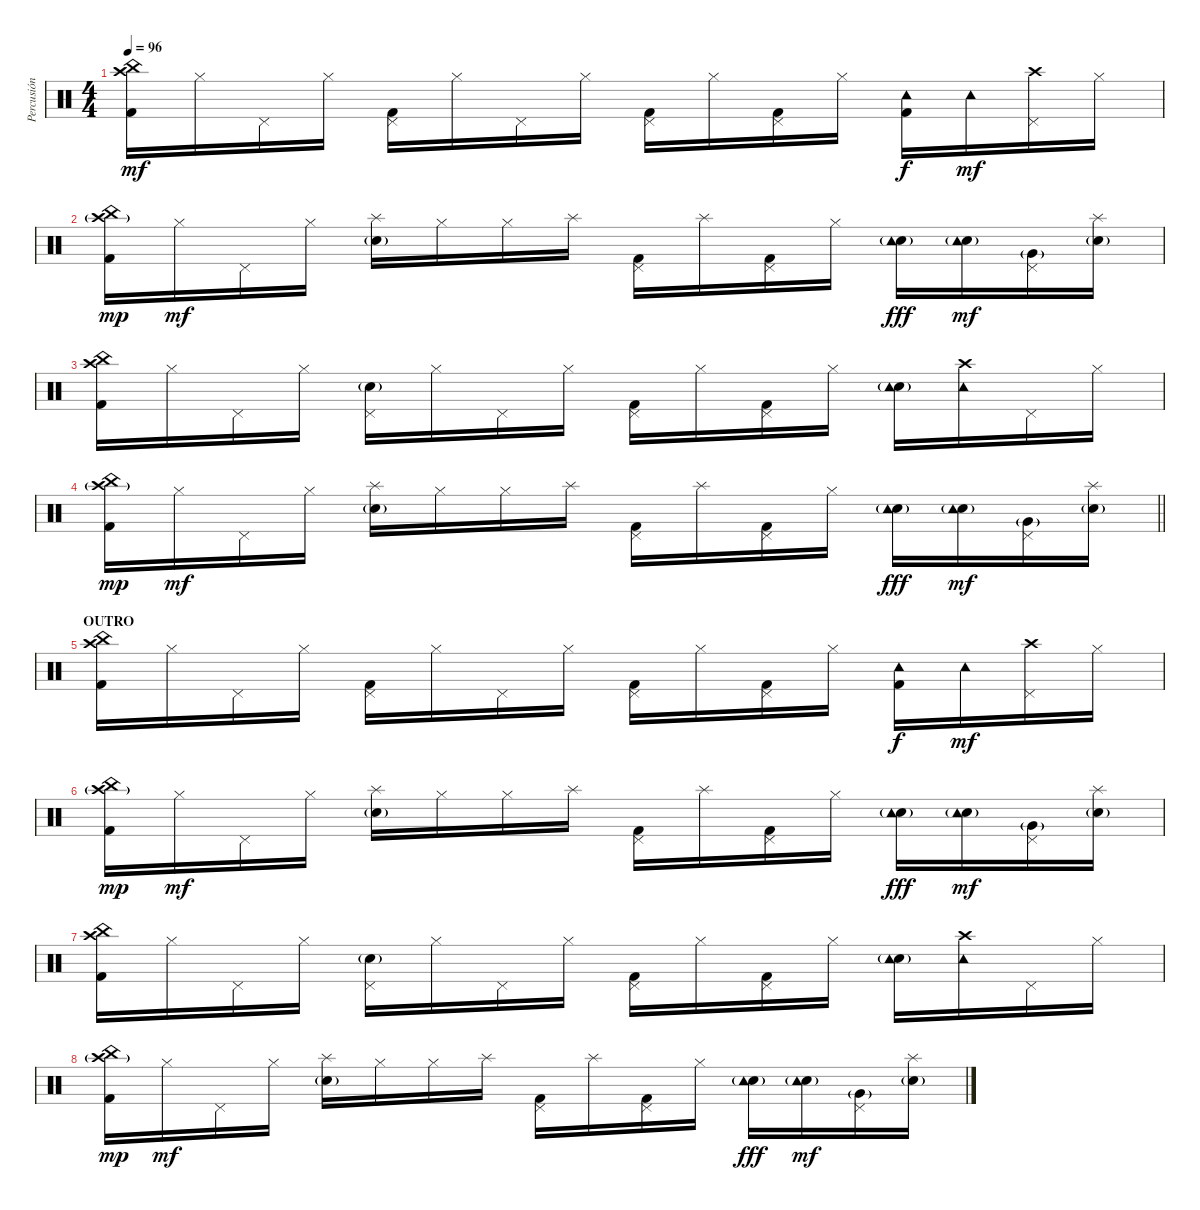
\track ("Percusión" "Percusión") {instrument percussion}
\staff {score}
\articulation defaults
\ts (4 4)
\tempo 96
\clef neutral
\ks c
("China (hit)" "Kick (hit) 2" "Crash high (hit)").16{dy mf} "Hi-Hat (closed)".16 "Pedal Hi-Hat (hit)".16 "Hi-Hat (closed)".16 ("Kick (hit) 2" "Pedal Hi-Hat (hit)").16 "Hi-Hat (closed)".16 "Pedal Hi-Hat (hit)".16 "Hi-Hat (closed)".16 ("Kick (hit) 2" "Pedal Hi-Hat (hit)").16 "Hi-Hat (closed)".16 ("Kick (hit) 2" "Pedal Hi-Hat (hit)").16 "Hi-Hat (closed)".16 ("Kick (hit) 2" "Tambourine (hit)").16{dy f} "Tambourine (hit)".16{dy mf} ("Crash high (hit)" "Pedal Hi-Hat (hit)").16 "Hi-Hat (closed)".16 |
("China (hit)" "Kick (hit) 2" "Crash high (hit)"{g}).16{dy mp} "Hi-Hat (closed)".16{dy mf} "Pedal Hi-Hat (hit)".16 "Hi-Hat (closed)".16 ("Electric Snare (hit)"{g} "Splash (hit)").16 "Hi-Hat (closed)".16 "Hi-Hat (closed)".16 "Splash (hit)".16 ("Kick (hit) 2" "Pedal Hi-Hat (hit)").16 "Splash (hit)".16 ("Kick (hit) 2" "Pedal Hi-Hat (hit)").16 "Hi-Hat (closed)".16 ("Electric Snare (hit)"{g} "Tambourine (hit)").16{dy fff} ("Electric Snare (hit)"{g} "Tambourine (hit)").16{dy mf} ("Very Low Tom (hit)"{g} "Pedal Hi-Hat (hit)").16 ("Electric Snare (hit)"{g} "Splash (hit)").16 |
("China (hit)" "Kick (hit) 2" "Crash high (hit)").16 "Hi-Hat (closed)".16 "Pedal Hi-Hat (hit)".16 "Hi-Hat (closed)".16 ("Electric Snare (hit)"{g} "Pedal Hi-Hat (hit)").16 "Hi-Hat (closed)".16 "Pedal Hi-Hat (hit)".16 "Hi-Hat (closed)".16 ("Kick (hit) 2" "Pedal Hi-Hat (hit)").16 "Hi-Hat (closed)".16 ("Kick (hit) 2" "Pedal Hi-Hat (hit)").16 "Hi-Hat (closed)".16 ("Electric Snare (hit)"{g} "Tambourine (hit)").16 ("Crash high (hit)" "Tambourine (hit)").16 "Pedal Hi-Hat (hit)".16 "Hi-Hat (closed)".16 |
\barLineRight lightlight
("China (hit)" "Kick (hit) 2" "Crash high (hit)"{g}).16{dy mp} "Hi-Hat (closed)".16{dy mf} "Pedal Hi-Hat (hit)".16 "Hi-Hat (closed)".16 ("Electric Snare (hit)"{g} "Splash (hit)").16 "Hi-Hat (closed)".16 "Hi-Hat (closed)".16 "Splash (hit)".16 ("Kick (hit) 2" "Pedal Hi-Hat (hit)").16 "Splash (hit)".16 ("Kick (hit) 2" "Pedal Hi-Hat (hit)").16 "Hi-Hat (closed)".16 ("Electric Snare (hit)"{g} "Tambourine (hit)").16{dy fff} ("Electric Snare (hit)"{g} "Tambourine (hit)").16{dy mf} ("Very Low Tom (hit)"{g} "Pedal Hi-Hat (hit)").16 ("Electric Snare (hit)"{g} "Splash (hit)").16 |
\section ("" "OUTRO")
("China (hit)" "Kick (hit) 2" "Crash high (hit)").16 "Hi-Hat (closed)".16 "Pedal Hi-Hat (hit)".16 "Hi-Hat (closed)".16 ("Kick (hit) 2" "Pedal Hi-Hat (hit)").16 "Hi-Hat (closed)".16 "Pedal Hi-Hat (hit)".16 "Hi-Hat (closed)".16 ("Kick (hit) 2" "Pedal Hi-Hat (hit)").16 "Hi-Hat (closed)".16 ("Kick (hit) 2" "Pedal Hi-Hat (hit)").16 "Hi-Hat (closed)".16 ("Kick (hit) 2" "Tambourine (hit)").16{dy f} "Tambourine (hit)".16{dy mf} ("Crash high (hit)" "Pedal Hi-Hat (hit)").16 "Hi-Hat (closed)".16 |
("China (hit)" "Kick (hit) 2" "Crash high (hit)"{g}).16{dy mp} "Hi-Hat (closed)".16{dy mf} "Pedal Hi-Hat (hit)".16 "Hi-Hat (closed)".16 ("Electric Snare (hit)"{g} "Splash (hit)").16 "Hi-Hat (closed)".16 "Hi-Hat (closed)".16 "Splash (hit)".16 ("Kick (hit) 2" "Pedal Hi-Hat (hit)").16 "Splash (hit)".16 ("Kick (hit) 2" "Pedal Hi-Hat (hit)").16 "Hi-Hat (closed)".16 ("Electric Snare (hit)"{g} "Tambourine (hit)").16{dy fff} ("Electric Snare (hit)"{g} "Tambourine (hit)").16{dy mf} ("Very Low Tom (hit)"{g} "Pedal Hi-Hat (hit)").16 ("Electric Snare (hit)"{g} "Splash (hit)").16 |
("China (hit)" "Kick (hit) 2" "Crash high (hit)").16 "Hi-Hat (closed)".16 "Pedal Hi-Hat (hit)".16 "Hi-Hat (closed)".16 ("Electric Snare (hit)"{g} "Pedal Hi-Hat (hit)").16 "Hi-Hat (closed)".16 "Pedal Hi-Hat (hit)".16 "Hi-Hat (closed)".16 ("Kick (hit) 2" "Pedal Hi-Hat (hit)").16 "Hi-Hat (closed)".16 ("Kick (hit) 2" "Pedal Hi-Hat (hit)").16 "Hi-Hat (closed)".16 ("Electric Snare (hit)"{g} "Tambourine (hit)").16 ("Crash high (hit)" "Tambourine (hit)").16 "Pedal Hi-Hat (hit)".16 "Hi-Hat (closed)".16 |
("China (hit)" "Kick (hit) 2" "Crash high (hit)"{g}).16{dy mp} "Hi-Hat (closed)".16{dy mf} "Pedal Hi-Hat (hit)".16 "Hi-Hat (closed)".16 ("Electric Snare (hit)"{g} "Splash (hit)").16 "Hi-Hat (closed)".16 "Hi-Hat (closed)".16 "Splash (hit)".16 ("Kick (hit) 2" "Pedal Hi-Hat (hit)").16 "Splash (hit)".16 ("Kick (hit) 2" "Pedal Hi-Hat (hit)").16 "Hi-Hat (closed)".16 ("Electric Snare (hit)"{g} "Tambourine (hit)").16{dy fff} ("Electric Snare (hit)"{g} "Tambourine (hit)").16{dy mf} ("Very Low Tom (hit)"{g} "Pedal Hi-Hat (hit)").16 ("Electric Snare (hit)"{g} "Splash (hit)").16
